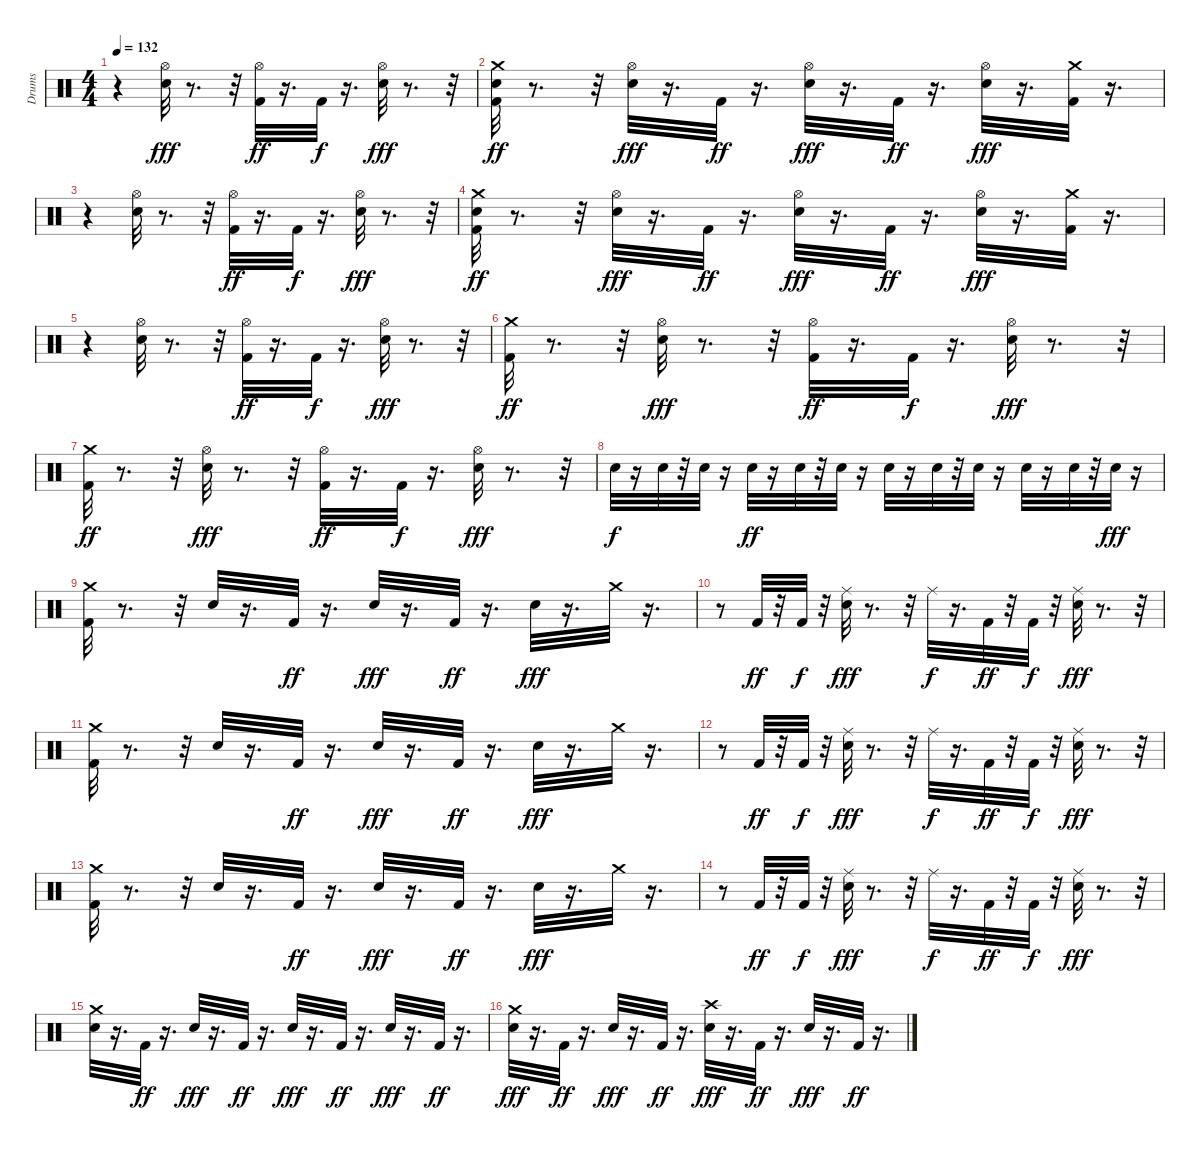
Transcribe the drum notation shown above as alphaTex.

\track ("Drums" "Drums") {instrument percussion}
\staff {score}
\articulation defaults
\ts (4 4)
\tempo 132
\clef neutral
\ks c
r.4{dy fff} ("Hi-Hat (open)" "Snare (hit) 2").32 r.8{d} r.32 ("Hi-Hat (open)" "Kick (hit) 2").32{dy ff} r.16{d} "Kick (hit) 2".32{dy f} r.16{d} ("Hi-Hat (open)" "Snare (hit) 2").32{dy fff} r.8{d} r.32 |
("Snare (hit) 2" "Crash medium (hit)" "Kick (hit) 2").32{dy ff} r.8{d} r.32 ("Hi-Hat (open)" "Snare (hit) 2").32{dy fff} r.16{d} "Kick (hit) 2".32{dy ff} r.16{d} ("Hi-Hat (open)" "Snare (hit) 2").32{dy fff} r.16{d} "Kick (hit) 2".32{dy ff} r.16{d} ("Hi-Hat (open)" "Snare (hit) 2").32{dy fff} r.16{d} ("Kick (hit) 2" "Crash medium (hit)").32 r.16{d} |
r.4 ("Hi-Hat (open)" "Snare (hit) 2").32 r.8{d} r.32 ("Hi-Hat (open)" "Kick (hit) 2").32{dy ff} r.16{d} "Kick (hit) 2".32{dy f} r.16{d} ("Hi-Hat (open)" "Snare (hit) 2").32{dy fff} r.8{d} r.32 |
("Snare (hit) 2" "Crash medium (hit)" "Kick (hit) 2").32{dy ff} r.8{d} r.32 ("Hi-Hat (open)" "Snare (hit) 2").32{dy fff} r.16{d} "Kick (hit) 2".32{dy ff} r.16{d} ("Hi-Hat (open)" "Snare (hit) 2").32{dy fff} r.16{d} "Kick (hit) 2".32{dy ff} r.16{d} ("Hi-Hat (open)" "Snare (hit) 2").32{dy fff} r.16{d} ("Kick (hit) 2" "Crash medium (hit)").32 r.16{d} |
r.4 ("Hi-Hat (open)" "Snare (hit) 2").32 r.8{d} r.32 ("Hi-Hat (open)" "Kick (hit) 2").32{dy ff} r.16{d} "Kick (hit) 2".32{dy f} r.16{d} ("Hi-Hat (open)" "Snare (hit) 2").32{dy fff} r.8{d} r.32 |
("Crash medium (hit)" "Kick (hit) 2").32{dy ff} r.8{d} r.32 ("Hi-Hat (open)" "Snare (hit) 2").32{dy fff} r.8{d} r.32 ("Hi-Hat (open)" "Kick (hit) 2").32{dy ff} r.16{d} "Kick (hit) 2".32{dy f} r.16{d} ("Hi-Hat (open)" "Snare (hit) 2").32{dy fff} r.8{d} r.32 |
("Crash medium (hit)" "Kick (hit) 2").32{dy ff} r.8{d} r.32 ("Hi-Hat (open)" "Snare (hit) 2").32{dy fff} r.8{d} r.32 ("Hi-Hat (open)" "Kick (hit) 2").32{dy ff} r.16{d} "Kick (hit) 2".32{dy f} r.16{d} ("Hi-Hat (open)" "Snare (hit) 2").32{dy fff} r.8{d} r.32 |
"Snare (hit) 2".32{dy f} r.16 "Snare (hit) 2".32 r.32 "Snare (hit) 2".32 r.16 "Snare (hit) 2".32{dy ff} r.16 "Snare (hit) 2".32 r.32 "Snare (hit) 2".32 r.16 "Snare (hit) 2".32 r.16 "Snare (hit) 2".32 r.32 "Snare (hit) 2".32 r.16 "Snare (hit) 2".32 r.16 "Snare (hit) 2".32 r.32 "Snare (hit) 2".32{dy fff} r.16 |
("Kick (hit) 2" "Crash medium (hit)").32 r.8{d} r.32 "Snare (hit) 2".32 r.16{d} "Kick (hit) 2".32{dy ff} r.16{d} "Snare (hit) 2".32{dy fff} r.16{d} "Kick (hit) 2".32{dy ff} r.16{d} "Snare (hit) 2".32{dy fff} r.16{d} "Crash medium (hit)".32 r.16{d} |
r.8 "Kick (hit) 2".32{dy ff} r.32 "Kick (hit) 2".32{dy f} r.32 ("Ride (middle)" "Snare (hit) 2").32{dy fff} r.8{d} r.32 "Ride (middle)".32{dy f} r.16{d} "Kick (hit) 2".32{dy ff} r.32 "Kick (hit) 2".32{dy f} r.32 ("Ride (middle)" "Snare (hit) 2").32{dy fff} r.8{d} r.32 |
("Kick (hit) 2" "Crash medium (hit)").32 r.8{d} r.32 "Snare (hit) 2".32 r.16{d} "Kick (hit) 2".32{dy ff} r.16{d} "Snare (hit) 2".32{dy fff} r.16{d} "Kick (hit) 2".32{dy ff} r.16{d} "Snare (hit) 2".32{dy fff} r.16{d} "Crash medium (hit)".32 r.16{d} |
r.8 "Kick (hit) 2".32{dy ff} r.32 "Kick (hit) 2".32{dy f} r.32 ("Ride (middle)" "Snare (hit) 2").32{dy fff} r.8{d} r.32 "Ride (middle)".32{dy f} r.16{d} "Kick (hit) 2".32{dy ff} r.32 "Kick (hit) 2".32{dy f} r.32 ("Ride (middle)" "Snare (hit) 2").32{dy fff} r.8{d} r.32 |
("Kick (hit) 2" "Crash medium (hit)").32 r.8{d} r.32 "Snare (hit) 2".32 r.16{d} "Kick (hit) 2".32{dy ff} r.16{d} "Snare (hit) 2".32{dy fff} r.16{d} "Kick (hit) 2".32{dy ff} r.16{d} "Snare (hit) 2".32{dy fff} r.16{d} "Crash medium (hit)".32 r.16{d} |
r.8 "Kick (hit) 2".32{dy ff} r.32 "Kick (hit) 2".32{dy f} r.32 ("Ride (middle)" "Snare (hit) 2").32{dy fff} r.8{d} r.32 "Ride (middle)".32{dy f} r.16{d} "Kick (hit) 2".32{dy ff} r.32 "Kick (hit) 2".32{dy f} r.32 ("Ride (middle)" "Snare (hit) 2").32{dy fff} r.8{d} r.32 |
("Crash medium (hit)" "Snare (hit) 2").32 r.16{d} "Kick (hit) 2".32{dy ff} r.16{d} "Snare (hit) 2".32{dy fff} r.16{d} "Kick (hit) 2".32{dy ff} r.16{d} "Snare (hit) 2".32{dy fff} r.16{d} "Kick (hit) 2".32{dy ff} r.16{d} "Snare (hit) 2".32{dy fff} r.16{d} "Kick (hit) 2".32{dy ff} r.16{d} |
("Snare (hit) 2" "Crash medium (hit)").32{dy fff} r.16{d} "Kick (hit) 2".32{dy ff} r.16{d} "Snare (hit) 2".32{dy fff} r.16{d} "Kick (hit) 2".32{dy ff} r.16{d} ("Crash high (hit)" "Snare (hit) 2").32{dy fff} r.16{d} "Kick (hit) 2".32{dy ff} r.16{d} "Snare (hit) 2".32{dy fff} r.16{d} "Kick (hit) 2".32{dy ff} r.16{d}
